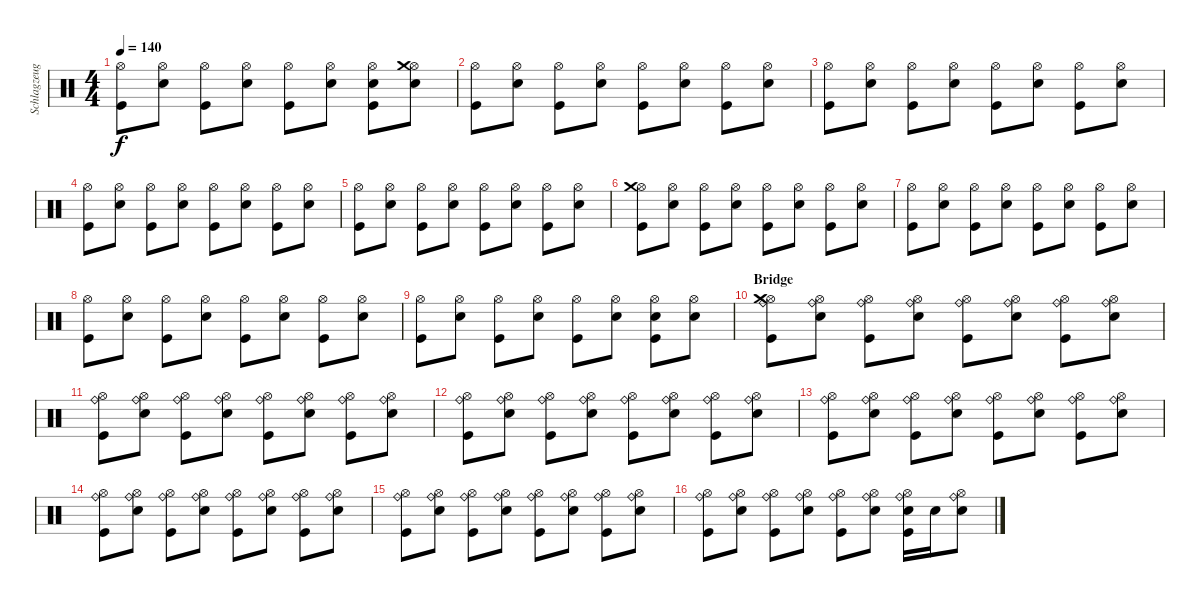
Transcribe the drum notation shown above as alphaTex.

\track ("Schlagzeug - Bela B." "Schlagzeug") {instrument percussion}
\staff {score}
\articulation defaults
\ts (4 4)
\tempo 140
\clef neutral
\ks c
("Kick (hit)" "Hi-Hat (open)").8{dy f} ("Hi-Hat (open)" "Electric Snare (hit)").8 ("Hi-Hat (open)" "Kick (hit)").8 ("Hi-Hat (open)" "Electric Snare (hit)").8 ("Kick (hit)" "Hi-Hat (open)").8 ("Hi-Hat (open)" "Electric Snare (hit)").8 ("Hi-Hat (open)" "Kick (hit)" "Electric Snare (hit)").8 ("Hi-Hat (open)" "Electric Snare (hit)" "Crash medium (hit)").8 |
("Kick (hit)" "Hi-Hat (open)").8 ("Hi-Hat (open)" "Electric Snare (hit)").8 ("Hi-Hat (open)" "Kick (hit)").8 ("Hi-Hat (open)" "Electric Snare (hit)").8 ("Kick (hit)" "Hi-Hat (open)").8 ("Hi-Hat (open)" "Electric Snare (hit)").8 ("Hi-Hat (open)" "Kick (hit)").8 ("Hi-Hat (open)" "Electric Snare (hit)").8 |
("Kick (hit)" "Hi-Hat (open)").8 ("Hi-Hat (open)" "Electric Snare (hit)").8 ("Hi-Hat (open)" "Kick (hit)").8 ("Hi-Hat (open)" "Electric Snare (hit)").8 ("Kick (hit)" "Hi-Hat (open)").8 ("Hi-Hat (open)" "Electric Snare (hit)").8 ("Hi-Hat (open)" "Kick (hit)").8 ("Hi-Hat (open)" "Electric Snare (hit)").8 |
("Kick (hit)" "Hi-Hat (open)").8 ("Hi-Hat (open)" "Electric Snare (hit)").8 ("Hi-Hat (open)" "Kick (hit)").8 ("Hi-Hat (open)" "Electric Snare (hit)").8 ("Kick (hit)" "Hi-Hat (open)").8 ("Hi-Hat (open)" "Electric Snare (hit)").8 ("Hi-Hat (open)" "Kick (hit)").8 ("Hi-Hat (open)" "Electric Snare (hit)").8 |
("Kick (hit)" "Hi-Hat (open)").8 ("Hi-Hat (open)" "Electric Snare (hit)").8 ("Hi-Hat (open)" "Kick (hit)").8 ("Hi-Hat (open)" "Electric Snare (hit)").8 ("Kick (hit)" "Hi-Hat (open)").8 ("Hi-Hat (open)" "Electric Snare (hit)").8 ("Hi-Hat (open)" "Kick (hit)").8 ("Hi-Hat (open)" "Electric Snare (hit)").8 |
("Kick (hit)" "Hi-Hat (open)" "Crash medium (hit)").8 ("Hi-Hat (open)" "Electric Snare (hit)").8 ("Hi-Hat (open)" "Kick (hit)").8 ("Hi-Hat (open)" "Electric Snare (hit)").8 ("Kick (hit)" "Hi-Hat (open)").8 ("Hi-Hat (open)" "Electric Snare (hit)").8 ("Hi-Hat (open)" "Kick (hit)").8 ("Hi-Hat (open)" "Electric Snare (hit)").8 |
("Kick (hit)" "Hi-Hat (open)").8 ("Hi-Hat (open)" "Electric Snare (hit)").8 ("Hi-Hat (open)" "Kick (hit)").8 ("Hi-Hat (open)" "Electric Snare (hit)").8 ("Kick (hit)" "Hi-Hat (open)").8 ("Hi-Hat (open)" "Electric Snare (hit)").8 ("Hi-Hat (open)" "Kick (hit)").8 ("Hi-Hat (open)" "Electric Snare (hit)").8 |
("Kick (hit)" "Hi-Hat (open)").8 ("Hi-Hat (open)" "Electric Snare (hit)").8 ("Hi-Hat (open)" "Kick (hit)").8 ("Hi-Hat (open)" "Electric Snare (hit)").8 ("Kick (hit)" "Hi-Hat (open)").8 ("Hi-Hat (open)" "Electric Snare (hit)").8 ("Hi-Hat (open)" "Kick (hit)").8 ("Hi-Hat (open)" "Electric Snare (hit)").8 |
("Kick (hit)" "Hi-Hat (open)").8 ("Hi-Hat (open)" "Electric Snare (hit)").8 ("Hi-Hat (open)" "Kick (hit)").8 ("Hi-Hat (open)" "Electric Snare (hit)").8 ("Kick (hit)" "Hi-Hat (open)").8 ("Hi-Hat (open)" "Electric Snare (hit)").8 ("Hi-Hat (open)" "Kick (hit)" "Electric Snare (hit)").8 ("Hi-Hat (open)" "Electric Snare (hit)").8 |
\section ("" "Bridge")
("Kick (hit)" "Hi-Hat (open)" "Crash medium (hit)" "Ride (bell)").8 ("Hi-Hat (open)" "Electric Snare (hit)" "Ride (bell)").8 ("Hi-Hat (open)" "Kick (hit)" "Ride (bell)").8 ("Hi-Hat (open)" "Electric Snare (hit)" "Ride (bell)").8 ("Kick (hit)" "Hi-Hat (open)" "Ride (bell)").8 ("Hi-Hat (open)" "Electric Snare (hit)" "Ride (bell)").8 ("Hi-Hat (open)" "Kick (hit)" "Ride (bell)").8 ("Hi-Hat (open)" "Electric Snare (hit)" "Ride (bell)").8 |
("Kick (hit)" "Hi-Hat (open)" "Ride (bell)").8 ("Hi-Hat (open)" "Electric Snare (hit)" "Ride (bell)").8 ("Hi-Hat (open)" "Kick (hit)" "Ride (bell)").8 ("Hi-Hat (open)" "Electric Snare (hit)" "Ride (bell)").8 ("Kick (hit)" "Hi-Hat (open)" "Ride (bell)").8 ("Hi-Hat (open)" "Electric Snare (hit)" "Ride (bell)").8 ("Hi-Hat (open)" "Kick (hit)" "Ride (bell)").8 ("Hi-Hat (open)" "Electric Snare (hit)" "Ride (bell)").8 |
("Kick (hit)" "Hi-Hat (open)" "Ride (bell)").8 ("Hi-Hat (open)" "Electric Snare (hit)" "Ride (bell)").8 ("Hi-Hat (open)" "Kick (hit)" "Ride (bell)").8 ("Hi-Hat (open)" "Electric Snare (hit)" "Ride (bell)").8 ("Kick (hit)" "Hi-Hat (open)" "Ride (bell)").8 ("Hi-Hat (open)" "Electric Snare (hit)" "Ride (bell)").8 ("Hi-Hat (open)" "Kick (hit)" "Ride (bell)").8 ("Hi-Hat (open)" "Electric Snare (hit)" "Ride (bell)").8 |
("Kick (hit)" "Hi-Hat (open)" "Ride (bell)").8 ("Hi-Hat (open)" "Electric Snare (hit)" "Ride (bell)").8 ("Hi-Hat (open)" "Kick (hit)" "Ride (bell)").8 ("Hi-Hat (open)" "Electric Snare (hit)" "Ride (bell)").8 ("Kick (hit)" "Hi-Hat (open)" "Ride (bell)").8 ("Hi-Hat (open)" "Electric Snare (hit)" "Ride (bell)").8 ("Hi-Hat (open)" "Kick (hit)" "Ride (bell)").8 ("Hi-Hat (open)" "Electric Snare (hit)" "Ride (bell)").8 |
("Kick (hit)" "Hi-Hat (open)" "Ride (bell)").8 ("Hi-Hat (open)" "Electric Snare (hit)" "Ride (bell)").8 ("Hi-Hat (open)" "Kick (hit)" "Ride (bell)").8 ("Hi-Hat (open)" "Electric Snare (hit)" "Ride (bell)").8 ("Kick (hit)" "Hi-Hat (open)" "Ride (bell)").8 ("Hi-Hat (open)" "Electric Snare (hit)" "Ride (bell)").8 ("Hi-Hat (open)" "Kick (hit)" "Ride (bell)").8 ("Hi-Hat (open)" "Electric Snare (hit)" "Ride (bell)").8 |
("Kick (hit)" "Hi-Hat (open)" "Ride (bell)").8 ("Hi-Hat (open)" "Electric Snare (hit)" "Ride (bell)").8 ("Hi-Hat (open)" "Kick (hit)" "Ride (bell)").8 ("Hi-Hat (open)" "Electric Snare (hit)" "Ride (bell)").8 ("Kick (hit)" "Hi-Hat (open)" "Ride (bell)").8 ("Hi-Hat (open)" "Electric Snare (hit)" "Ride (bell)").8 ("Hi-Hat (open)" "Kick (hit)" "Ride (bell)").8 ("Hi-Hat (open)" "Electric Snare (hit)" "Ride (bell)").8 |
("Kick (hit)" "Hi-Hat (open)" "Ride (bell)").8 ("Hi-Hat (open)" "Electric Snare (hit)" "Ride (bell)").8 ("Hi-Hat (open)" "Kick (hit)" "Ride (bell)").8 ("Hi-Hat (open)" "Electric Snare (hit)" "Ride (bell)").8 ("Kick (hit)" "Hi-Hat (open)" "Ride (bell)").8 ("Hi-Hat (open)" "Electric Snare (hit)" "Ride (bell)").8 ("Hi-Hat (open)" "Kick (hit)" "Electric Snare (hit)" "Ride (bell)").16 "Electric Snare (hit)".16 ("Hi-Hat (open)" "Electric Snare (hit)" "Ride (bell)").8
